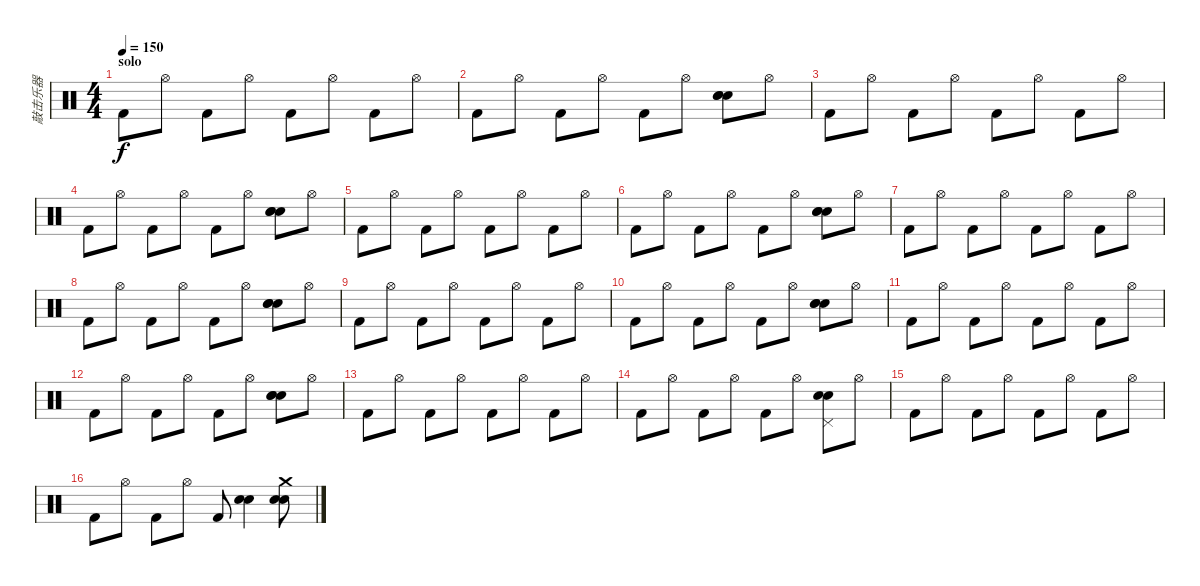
\track ("敲击乐器" "敲击乐器") {instrument percussion}
\staff {score}
\articulation defaults
\ts (4 4)
\section ("" "solo")
\tempo 150
\clef neutral
\ks c "Kick (hit) 2".8{dy f} "Hi-Hat (open)".8 "Kick (hit) 2".8 "Hi-Hat (open)".8 "Kick (hit) 2".8 "Hi-Hat (open)".8 "Kick (hit) 2".8 "Hi-Hat (open)".8
|
"Kick (hit) 2".8 "Hi-Hat (open)".8 "Kick (hit) 2".8 "Hi-Hat (open)".8 "Kick (hit) 2".8 "Hi-Hat (open)".8 ("Snare (hit) 2" "Metronome (bell)" "Electric Snare (hit)").8 "Hi-Hat (open)".8 |
"Kick (hit) 2".8 "Hi-Hat (open)".8 "Kick (hit) 2".8 "Hi-Hat (open)".8 "Kick (hit) 2".8 "Hi-Hat (open)".8 "Kick (hit) 2".8 "Hi-Hat (open)".8 |
"Kick (hit) 2".8 "Hi-Hat (open)".8 "Kick (hit) 2".8 "Hi-Hat (open)".8 "Kick (hit) 2".8 "Hi-Hat (open)".8 ("Snare (hit) 2" "Metronome (bell)" "Electric Snare (hit)").8 "Hi-Hat (open)".8 |
"Kick (hit) 2".8 "Hi-Hat (open)".8 "Kick (hit) 2".8 "Hi-Hat (open)".8 "Kick (hit) 2".8 "Hi-Hat (open)".8 "Kick (hit) 2".8 "Hi-Hat (open)".8 |
"Kick (hit) 2".8 "Hi-Hat (open)".8 "Kick (hit) 2".8 "Hi-Hat (open)".8 "Kick (hit) 2".8 "Hi-Hat (open)".8 ("Snare (hit) 2" "Metronome (bell)" "Electric Snare (hit)").8 "Hi-Hat (open)".8 |
"Kick (hit) 2".8 "Hi-Hat (open)".8 "Kick (hit) 2".8 "Hi-Hat (open)".8 "Kick (hit) 2".8 "Hi-Hat (open)".8 "Kick (hit) 2".8 "Hi-Hat (open)".8 |
"Kick (hit) 2".8 "Hi-Hat (open)".8 "Kick (hit) 2".8 "Hi-Hat (open)".8 "Kick (hit) 2".8 "Hi-Hat (open)".8 ("Snare (hit) 2" "Metronome (bell)" "Electric Snare (hit)").8 "Hi-Hat (open)".8 |
"Kick (hit) 2".8 "Hi-Hat (open)".8 "Kick (hit) 2".8 "Hi-Hat (open)".8 "Kick (hit) 2".8 "Hi-Hat (open)".8 "Kick (hit) 2".8 "Hi-Hat (open)".8 |
"Kick (hit) 2".8 "Hi-Hat (open)".8 "Kick (hit) 2".8 "Hi-Hat (open)".8 "Kick (hit) 2".8 "Hi-Hat (open)".8 ("Snare (hit) 2" "Metronome (bell)" "Electric Snare (hit)").8 "Hi-Hat (open)".8 |
"Kick (hit) 2".8 "Hi-Hat (open)".8 "Kick (hit) 2".8 "Hi-Hat (open)".8 "Kick (hit) 2".8 "Hi-Hat (open)".8 "Kick (hit) 2".8 "Hi-Hat (open)".8 |
"Kick (hit) 2".8 "Hi-Hat (open)".8 "Kick (hit) 2".8 "Hi-Hat (open)".8 "Kick (hit) 2".8 "Hi-Hat (open)".8 ("Snare (hit) 2" "Metronome (bell)" "Electric Snare (hit)").8 "Hi-Hat (open)".8 |
"Kick (hit) 2".8 "Hi-Hat (open)".8 "Kick (hit) 2".8 "Hi-Hat (open)".8 "Kick (hit) 2".8 "Hi-Hat (open)".8 "Kick (hit) 2".8 "Hi-Hat (open)".8 |
"Kick (hit) 2".8 "Hi-Hat (open)".8 "Kick (hit) 2".8 "Hi-Hat (open)".8 "Kick (hit) 2".8 "Hi-Hat (open)".8 ("Snare (hit) 2" "Pedal Hi-Hat (hit)" "Electric Snare (hit)").8 "Hi-Hat (open)".8 |
"Kick (hit) 2".8 "Hi-Hat (open)".8 "Kick (hit) 2".8 "Hi-Hat (open)".8 "Kick (hit) 2".8 "Hi-Hat (open)".8 "Kick (hit) 2".8 "Hi-Hat (open)".8 |
"Kick (hit) 2".8 "Hi-Hat (open)".8 "Kick (hit) 2".8 "Hi-Hat (open)".8 "Kick (hit) 2".8 ("Snare (hit) 2" "Electric Snare (hit)").4 ("Snare (hit) 2" "Electric Snare (hit)" "Crash medium (hit)").8
